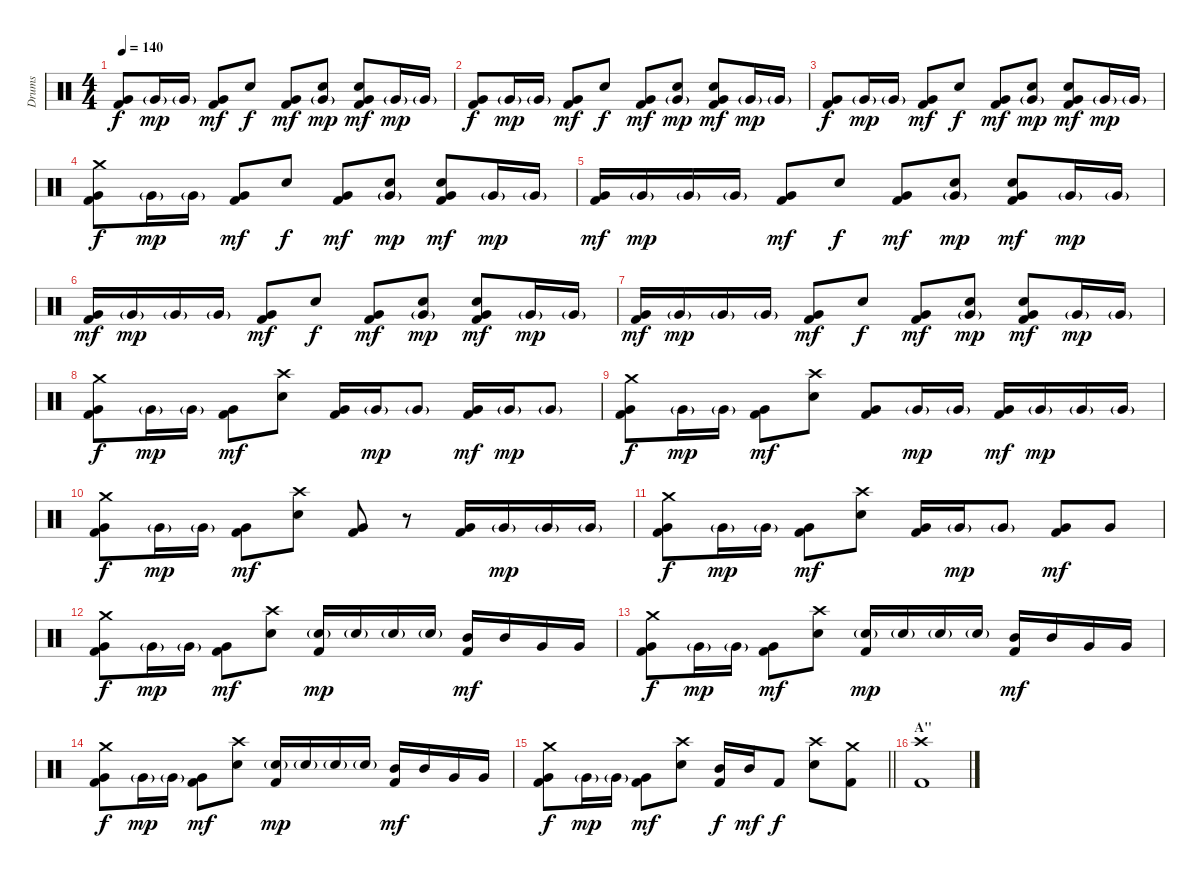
\track ("Drums" "Drums") {instrument percussion}
\staff {score}
\articulation defaults
\ts (4 4)
\tempo 140
\clef neutral
\ks c
("Very Low Tom (hit)" "Kick (hit) 2").8{dy f} "Very Low Tom (hit)"{g}.16{dy mp} "Very Low Tom (hit)"{g}.16 ("Very Low Tom (hit)" "Kick (hit) 2").8{dy mf} "Snare (hit) 2".8{dy f} ("Very Low Tom (hit)" "Kick (hit) 2").8{dy mf} ("Snare (hit) 2" "Very Low Tom (hit)"{g}).8{dy mp} ("Snare (hit) 2" "Very Low Tom (hit)" "Kick (hit) 2").8{dy mf} "Very Low Tom (hit)"{g}.16{dy mp} "Very Low Tom (hit)"{g}.16 |
("Very Low Tom (hit)" "Kick (hit) 2").8{dy f} "Very Low Tom (hit)"{g}.16{dy mp} "Very Low Tom (hit)"{g}.16 ("Very Low Tom (hit)" "Kick (hit) 2").8{dy mf} "Snare (hit) 2".8{dy f} ("Very Low Tom (hit)" "Kick (hit) 2").8{dy mf} ("Snare (hit) 2" "Very Low Tom (hit)"{g}).8{dy mp} ("Snare (hit) 2" "Very Low Tom (hit)" "Kick (hit) 2").8{dy mf} "Very Low Tom (hit)"{g}.16{dy mp} "Very Low Tom (hit)"{g}.16 |
("Very Low Tom (hit)" "Kick (hit) 2").8{dy f} "Very Low Tom (hit)"{g}.16{dy mp} "Very Low Tom (hit)"{g}.16 ("Very Low Tom (hit)" "Kick (hit) 2").8{dy mf} "Snare (hit) 2".8{dy f} ("Very Low Tom (hit)" "Kick (hit) 2").8{dy mf} ("Snare (hit) 2" "Very Low Tom (hit)"{g}).8{dy mp} ("Snare (hit) 2" "Very Low Tom (hit)" "Kick (hit) 2").8{dy mf} "Very Low Tom (hit)"{g}.16{dy mp} "Very Low Tom (hit)"{g}.16 |
("Crash medium (hit)" "Very Low Tom (hit)" "Kick (hit) 2").8{dy f} "Very Low Tom (hit)"{g}.16{dy mp} "Very Low Tom (hit)"{g}.16 ("Very Low Tom (hit)" "Kick (hit) 2").8{dy mf} "Snare (hit) 2".8{dy f} ("Very Low Tom (hit)" "Kick (hit) 2").8{dy mf} ("Snare (hit) 2" "Very Low Tom (hit)"{g}).8{dy mp} ("Snare (hit) 2" "Very Low Tom (hit)" "Kick (hit) 2").8{dy mf} "Very Low Tom (hit)"{g}.16{dy mp} "Very Low Tom (hit)"{g}.16 |
("Very Low Tom (hit)" "Kick (hit) 2").16{dy mf} "Very Low Tom (hit)"{g}.16{dy mp} "Very Low Tom (hit)"{g}.16 "Very Low Tom (hit)"{g}.16 ("Very Low Tom (hit)" "Kick (hit) 2").8{dy mf} "Snare (hit) 2".8{dy f} ("Very Low Tom (hit)" "Kick (hit) 2").8{dy mf} ("Snare (hit) 2" "Very Low Tom (hit)"{g}).8{dy mp} ("Snare (hit) 2" "Very Low Tom (hit)" "Kick (hit) 2").8{dy mf} "Very Low Tom (hit)"{g}.16{dy mp} "Very Low Tom (hit)"{g}.16 |
("Very Low Tom (hit)" "Kick (hit) 2").16{dy mf} "Very Low Tom (hit)"{g}.16{dy mp} "Very Low Tom (hit)"{g}.16 "Very Low Tom (hit)"{g}.16 ("Very Low Tom (hit)" "Kick (hit) 2").8{dy mf} "Snare (hit) 2".8{dy f} ("Very Low Tom (hit)" "Kick (hit) 2").8{dy mf} ("Snare (hit) 2" "Very Low Tom (hit)"{g}).8{dy mp} ("Snare (hit) 2" "Very Low Tom (hit)" "Kick (hit) 2").8{dy mf} "Very Low Tom (hit)"{g}.16{dy mp} "Very Low Tom (hit)"{g}.16 |
("Very Low Tom (hit)" "Kick (hit) 2").16{dy mf} "Very Low Tom (hit)"{g}.16{dy mp} "Very Low Tom (hit)"{g}.16 "Very Low Tom (hit)"{g}.16 ("Very Low Tom (hit)" "Kick (hit) 2").8{dy mf} "Snare (hit) 2".8{dy f} ("Very Low Tom (hit)" "Kick (hit) 2").8{dy mf} ("Snare (hit) 2" "Very Low Tom (hit)"{g}).8{dy mp} ("Snare (hit) 2" "Very Low Tom (hit)" "Kick (hit) 2").8{dy mf} "Very Low Tom (hit)"{g}.16{dy mp} "Very Low Tom (hit)"{g}.16 |
("Crash medium (hit)" "Very Low Tom (hit)" "Kick (hit) 2").8{dy f} "Very Low Tom (hit)"{g}.16{dy mp} "Very Low Tom (hit)"{g}.16 ("Very Low Tom (hit)" "Kick (hit) 2").8{dy mf} ("Crash high (hit)" "Snare (hit) 2").8 ("Very Low Tom (hit)" "Kick (hit) 2").16 "Very Low Tom (hit)"{g}.16{dy mp} "Very Low Tom (hit)"{g}.8 ("Very Low Tom (hit)" "Kick (hit) 2").16{dy mf} "Very Low Tom (hit)"{g}.16{dy mp} "Very Low Tom (hit)"{g}.8 |
("Crash medium (hit)" "Very Low Tom (hit)" "Kick (hit) 2").8{dy f} "Very Low Tom (hit)"{g}.16{dy mp} "Very Low Tom (hit)"{g}.16 ("Very Low Tom (hit)" "Kick (hit) 2").8{dy mf} ("Crash high (hit)" "Snare (hit) 2").8 ("Very Low Tom (hit)" "Kick (hit) 2").8 "Very Low Tom (hit)"{g}.16{dy mp} "Very Low Tom (hit)"{g}.16 ("Very Low Tom (hit)" "Kick (hit) 2").16{dy mf} "Very Low Tom (hit)"{g}.16{dy mp} "Very Low Tom (hit)"{g}.16 "Very Low Tom (hit)"{g}.16 |
("Crash medium (hit)" "Very Low Tom (hit)" "Kick (hit) 2").8{dy f} "Very Low Tom (hit)"{g}.16{dy mp} "Very Low Tom (hit)"{g}.16 ("Very Low Tom (hit)" "Kick (hit) 2").8{dy mf} ("Crash high (hit)" "Snare (hit) 2").8 ("Very Low Tom (hit)" "Kick (hit) 2").8 r.8 ("Very Low Tom (hit)" "Kick (hit) 2").16 "Very Low Tom (hit)"{g}.16{dy mp} "Very Low Tom (hit)"{g}.16 "Very Low Tom (hit)"{g}.16 |
("Crash medium (hit)" "Very Low Tom (hit)" "Kick (hit) 2").8{dy f} "Very Low Tom (hit)"{g}.16{dy mp} "Very Low Tom (hit)"{g}.16 ("Very Low Tom (hit)" "Kick (hit) 2").8{dy mf} ("Crash high (hit)" "Snare (hit) 2").8 ("Very Low Tom (hit)" "Kick (hit) 2").16 "Very Low Tom (hit)"{g}.16{dy mp} "Very Low Tom (hit)"{g}.8 ("Very Low Tom (hit)" "Kick (hit) 2").8{dy mf} "Very Low Tom (hit)".8 |
("Crash medium (hit)" "Very Low Tom (hit)" "Kick (hit) 2").8{dy f} "Very Low Tom (hit)"{g}.16{dy mp} "Very Low Tom (hit)"{g}.16 ("Very Low Tom (hit)" "Kick (hit) 2").8{dy mf} ("Crash high (hit)" "Snare (hit) 2").8 ("Snare (hit) 2"{g} "Kick (hit) 2").16{dy mp} "Snare (hit) 2"{g}.16 "Snare (hit) 2"{g}.16 "Snare (hit) 2"{g}.16 ("Mid Tom (hit)" "Kick (hit) 2").16{dy mf} "Mid Tom (hit)".16 "Very Low Tom (hit)".16 "Very Low Tom (hit)".16 |
("Crash medium (hit)" "Very Low Tom (hit)" "Kick (hit) 2").8{dy f} "Very Low Tom (hit)"{g}.16{dy mp} "Very Low Tom (hit)"{g}.16 ("Very Low Tom (hit)" "Kick (hit) 2").8{dy mf} ("Crash high (hit)" "Snare (hit) 2").8 ("Snare (hit) 2"{g} "Kick (hit) 2").16{dy mp} "Snare (hit) 2"{g}.16 "Snare (hit) 2"{g}.16 "Snare (hit) 2"{g}.16 ("Mid Tom (hit)" "Kick (hit) 2").16{dy mf} "Mid Tom (hit)".16 "Very Low Tom (hit)".16 "Very Low Tom (hit)".16 |
("Crash medium (hit)" "Very Low Tom (hit)" "Kick (hit) 2").8{dy f} "Very Low Tom (hit)"{g}.16{dy mp} "Very Low Tom (hit)"{g}.16 ("Very Low Tom (hit)" "Kick (hit) 2").8{dy mf} ("Crash high (hit)" "Snare (hit) 2").8 ("Snare (hit) 2"{g} "Kick (hit) 2").16{dy mp} "Snare (hit) 2"{g}.16 "Snare (hit) 2"{g}.16 "Snare (hit) 2"{g}.16 ("Mid Tom (hit)" "Kick (hit) 2").16{dy mf} "Mid Tom (hit)".16 "Very Low Tom (hit)".16 "Very Low Tom (hit)".16 |
\barLineRight lightlight
("Crash medium (hit)" "Very Low Tom (hit)" "Kick (hit) 2").8{dy f} "Very Low Tom (hit)"{g}.16{dy mp} "Very Low Tom (hit)"{g}.16 ("Very Low Tom (hit)" "Kick (hit) 2").8{dy mf} ("Crash high (hit)" "Snare (hit) 2").8 ("Mid Tom (hit)" "Kick (hit) 2").16{dy f} "Mid Tom (hit)".16{dy mf} "Kick (hit) 2".8{dy f} ("Crash high (hit)" "Snare (hit) 2").8 ("Crash medium (hit)" "Kick (hit) 2").8 |
\section ("" "A''")
("Crash high (hit)" "Kick (hit) 2").1
